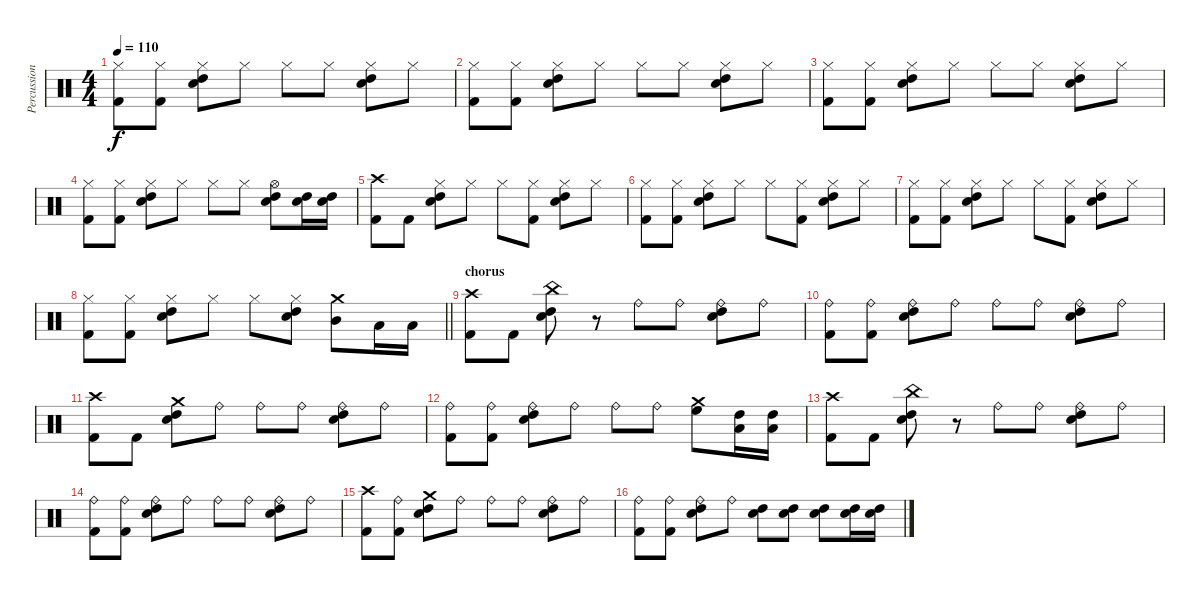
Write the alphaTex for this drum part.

\track ("Percussion" "Percussion") {instrument percussion}
\staff {score}
\articulation defaults
\ts (4 4)
\tempo 110
\clef neutral
\ks c
("Hi-Hat (closed)" "Kick (hit) 2").8{dy f} ("Hi-Hat (closed)" "Kick (hit) 2").8 ("Hi-Hat (closed)" "High Tom (hit)" "Snare (hit) 2").8 "Hi-Hat (closed)".8 "Hi-Hat (closed)".8 "Hi-Hat (closed)".8 ("Hi-Hat (closed)" "High Tom (hit)" "Snare (hit) 2").8 "Hi-Hat (closed)".8 |
("Hi-Hat (closed)" "Kick (hit) 2").8 ("Hi-Hat (closed)" "Kick (hit) 2").8 ("Hi-Hat (closed)" "High Tom (hit)" "Snare (hit) 2").8 "Hi-Hat (closed)".8 "Hi-Hat (closed)".8 "Hi-Hat (closed)".8 ("Hi-Hat (closed)" "High Tom (hit)" "Snare (hit) 2").8 "Hi-Hat (closed)".8 |
("Hi-Hat (closed)" "Kick (hit) 2").8 ("Hi-Hat (closed)" "Kick (hit) 2").8 ("Hi-Hat (closed)" "High Tom (hit)" "Snare (hit) 2").8 "Hi-Hat (closed)".8 "Hi-Hat (closed)".8 "Hi-Hat (closed)".8 ("Hi-Hat (closed)" "High Tom (hit)" "Snare (hit) 2").8 "Hi-Hat (closed)".8 |
("Hi-Hat (closed)" "Kick (hit) 2").8 ("Hi-Hat (closed)" "Kick (hit) 2").8 ("Hi-Hat (closed)" "High Tom (hit)" "Snare (hit) 2").8 "Hi-Hat (closed)".8 "Hi-Hat (closed)".8 "Hi-Hat (closed)".8 ("Hi-Hat (open)" "High Tom (hit)" "Snare (hit) 2").8 ("High Tom (hit)" "Snare (hit) 2").16 ("High Tom (hit)" "Snare (hit) 2").16 |
("Crash high (hit)" "Kick (hit) 2").8 "Kick (hit) 2".8 ("Hi-Hat (closed)" "High Tom (hit)" "Snare (hit) 2").8 "Hi-Hat (closed)".8 "Hi-Hat (closed)".8 ("Hi-Hat (closed)" "Kick (hit) 2").8 ("Hi-Hat (closed)" "High Tom (hit)" "Snare (hit) 2").8 "Hi-Hat (closed)".8 |
("Hi-Hat (closed)" "Kick (hit) 2").8 ("Hi-Hat (closed)" "Kick (hit) 2").8 ("Hi-Hat (closed)" "High Tom (hit)" "Snare (hit) 2").8 "Hi-Hat (closed)".8 "Hi-Hat (closed)".8 ("Hi-Hat (closed)" "Kick (hit) 2").8 ("Hi-Hat (closed)" "High Tom (hit)" "Snare (hit) 2").8 "Hi-Hat (closed)".8 |
("Hi-Hat (closed)" "Kick (hit) 2").8 ("Hi-Hat (closed)" "Kick (hit) 2").8 ("Hi-Hat (closed)" "High Tom (hit)" "Snare (hit) 2").8 "Hi-Hat (closed)".8 "Hi-Hat (closed)".8 ("Hi-Hat (closed)" "Kick (hit) 2").8 ("Hi-Hat (closed)" "High Tom (hit)" "Snare (hit) 2").8 "Hi-Hat (closed)".8 |
\barLineRight lightlight
("Hi-Hat (closed)" "Kick (hit) 2").8 ("Hi-Hat (closed)" "Kick (hit) 2").8 ("Hi-Hat (closed)" "High Tom (hit)" "Snare (hit) 2").8 "Hi-Hat (closed)".8 "Hi-Hat (closed)".8 ("Hi-Hat (closed)" "High Tom (hit)" "Snare (hit) 2").8 ("Crash medium (hit)" "Mid Tom (hit)").8 "Low Tom (hit)".16 "Low Tom (hit)".16 |
\section ("" "chorus")
("Crash high (hit)" "Kick (hit) 2").8 "Kick (hit) 2".8 ("China (hit)" "High Tom (hit)" "Snare (hit) 2").8 r.8 "Ride (bell)".8 "Ride (bell)".8 ("Ride (bell)" "High Tom (hit)" "Snare (hit) 2").8 "Ride (bell)".8 |
("Ride (bell)" "Kick (hit) 2").8 ("Ride (bell)" "Kick (hit) 2").8 ("Ride (bell)" "High Tom (hit)" "Snare (hit) 2").8 "Ride (bell)".8 "Ride (bell)".8 "Ride (bell)".8 ("Ride (bell)" "High Tom (hit)" "Snare (hit) 2").8 "Ride (bell)".8 |
("Crash high (hit)" "Kick (hit) 2").8 "Kick (hit) 2".8 ("Crash medium (hit)" "High Tom (hit)" "Snare (hit) 2").8 "Ride (bell)".8 "Ride (bell)".8 "Ride (bell)".8 ("Ride (bell)" "High Tom (hit)" "Snare (hit) 2").8 "Ride (bell)".8 |
("Ride (bell)" "Kick (hit) 2").8 ("Ride (bell)" "Kick (hit) 2").8 ("Ride (bell)" "High Tom (hit)" "Snare (hit) 2").8 "Ride (bell)".8 "Ride (bell)".8 "Ride (bell)".8 ("Crash medium (hit)" "High Floor Tom (hit)").8 ("High Tom (hit)" "Low Tom (hit)").16 ("High Tom (hit)" "Low Tom (hit)").16 |
("Crash high (hit)" "Kick (hit) 2").8 "Kick (hit) 2".8 ("China (hit)" "High Tom (hit)" "Snare (hit) 2").8 r.8 "Ride (bell)".8 "Ride (bell)".8 ("Ride (bell)" "High Tom (hit)" "Snare (hit) 2").8 "Ride (bell)".8 |
("Ride (bell)" "Kick (hit) 2").8 ("Ride (bell)" "Kick (hit) 2").8 ("Ride (bell)" "High Tom (hit)" "Snare (hit) 2").8 "Ride (bell)".8 "Ride (bell)".8 "Ride (bell)".8 ("Ride (bell)" "High Tom (hit)" "Snare (hit) 2").8 "Ride (bell)".8 |
("Crash high (hit)" "Kick (hit) 2").8 ("Ride (bell)" "Kick (hit) 2").8 ("Crash medium (hit)" "High Tom (hit)" "Snare (hit) 2").8 "Ride (bell)".8 "Ride (bell)".8 "Ride (bell)".8 ("Ride (bell)" "High Tom (hit)" "Snare (hit) 2").8 "Ride (bell)".8 |
("Ride (bell)" "Kick (hit) 2").8 ("Ride (bell)" "Kick (hit) 2").8 ("Ride (bell)" "High Tom (hit)" "Snare (hit) 2").8 "Ride (bell)".8 ("High Tom (hit)" "Snare (hit) 2").8 ("High Tom (hit)" "Snare (hit) 2").8 ("High Tom (hit)" "Snare (hit) 2").8 ("High Tom (hit)" "Snare (hit) 2").16 ("High Tom (hit)" "Snare (hit) 2").16
